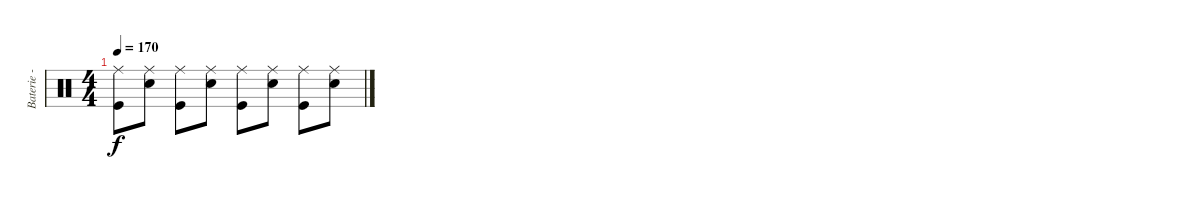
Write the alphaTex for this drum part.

\track ("Baterie - Guillaume" "Baterie - ") {instrument percussion}
\staff {score}
\articulation defaults
\ts (4 4)
\tempo 170
\clef neutral
\ks c
("Ride (middle)" "Kick (hit)").8{dy f} ("Ride (middle)" "Electric Snare (hit)").8 ("Ride (middle)" "Kick (hit)").8 ("Ride (middle)" "Electric Snare (hit)").8 ("Ride (middle)" "Kick (hit)").8 ("Ride (middle)" "Electric Snare (hit)").8 ("Ride (middle)" "Kick (hit)").8 ("Ride (middle)" "Electric Snare (hit)").8
